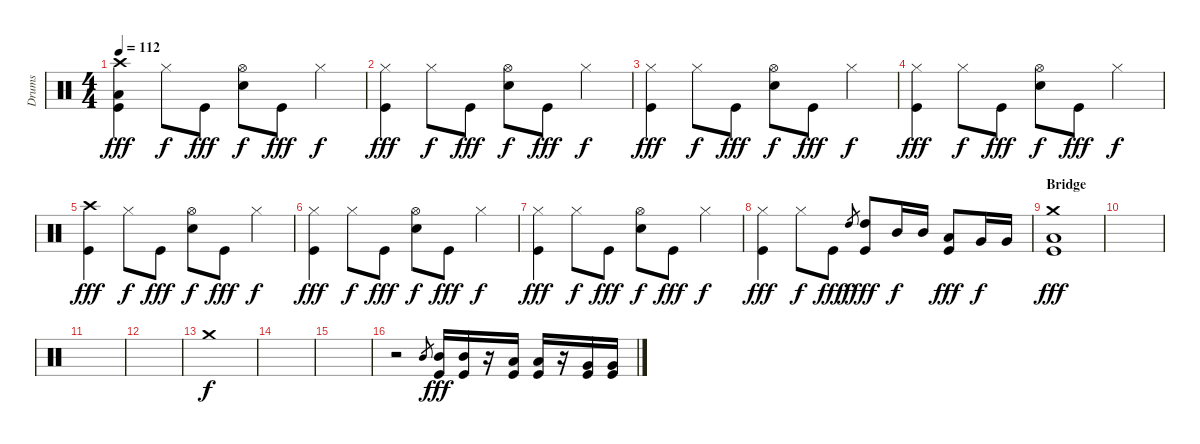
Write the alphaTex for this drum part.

\track ("Drums" "Drums") {instrument percussion}
\staff {score}
\articulation defaults
\ts (4 4)
\tempo 112
\clef neutral
\ks c
("Crash high (hit)" "Low Floor Tom (hit)" "Kick (hit)").4{dy fff} "Hi-Hat (closed)".8{dy f} "Kick (hit)".8{dy fff} ("Hi-Hat (open)" "Snare (hit) 2").8{dy f} "Kick (hit)".8{dy fff} "Hi-Hat (closed)".4{dy f} |
("Hi-Hat (closed)" "Kick (hit)").4{dy fff} "Hi-Hat (closed)".8{dy f} "Kick (hit)".8{dy fff} ("Hi-Hat (open)" "Snare (hit) 2").8{dy f} "Kick (hit)".8{dy fff} "Hi-Hat (closed)".4{dy f} |
("Hi-Hat (closed)" "Kick (hit)").4{dy fff} "Hi-Hat (closed)".8{dy f} "Kick (hit)".8{dy fff} ("Hi-Hat (open)" "Snare (hit) 2").8{dy f} "Kick (hit)".8{dy fff} "Hi-Hat (closed)".4{dy f} |
("Hi-Hat (closed)" "Kick (hit)").4{dy fff} "Hi-Hat (closed)".8{dy f} "Kick (hit)".8{dy fff} ("Hi-Hat (open)" "Snare (hit) 2").8{dy f} "Kick (hit)".8{dy fff} "Hi-Hat (closed)".4{dy f} |
("Crash high (hit)" "Kick (hit)").4{dy fff} "Hi-Hat (closed)".8{dy f} "Kick (hit)".8{dy fff} ("Hi-Hat (open)" "Snare (hit) 2").8{dy f} "Kick (hit)".8{dy fff} "Hi-Hat (closed)".4{dy f} |
("Hi-Hat (closed)" "Kick (hit)").4{dy fff} "Hi-Hat (closed)".8{dy f} "Kick (hit)".8{dy fff} ("Hi-Hat (open)" "Snare (hit) 2").8{dy f} "Kick (hit)".8{dy fff} "Hi-Hat (closed)".4{dy f} |
("Hi-Hat (closed)" "Kick (hit)").4{dy fff} "Hi-Hat (closed)".8{dy f} "Kick (hit)".8{dy fff} ("Hi-Hat (open)" "Snare (hit) 2").8{dy f} "Kick (hit)".8{dy fff} "Hi-Hat (closed)".4{dy f} |
("Hi-Hat (closed)" "Kick (hit)").4{dy fff} "Hi-Hat (closed)".8{dy f} "Kick (hit)".8{dy fff} "High Tom (hit)".8{gr dy f} ("High Tom (hit)" "Kick (hit)").8{dy fff} "Mid Tom (hit)".16{dy f} "Mid Tom (hit)".16 ("Low Tom (hit)" "Kick (hit)").8{dy fff} "Very Low Tom (hit)".16{dy f} "Very Low Tom (hit)".16 |
\section ("" "Bridge ")
("Crash medium (hit)" "Low Floor Tom (hit)" "Kick (hit)").1{dy fff} |
|
|
|
"Crash medium (hit)".1{dy f} |
|
|
r.2 "Mid Tom (hit)".8{gr} ("Mid Tom (hit)" "Kick (hit)").16{dy fff} ("Mid Tom (hit)" "Kick (hit)").16 r.16 ("Low Tom (hit)" "Kick (hit)").16 ("Low Tom (hit)" "Kick (hit)").16 r.16 ("Very Low Tom (hit)" "Kick (hit)").16 ("Very Low Tom (hit)" "Kick (hit)").16
